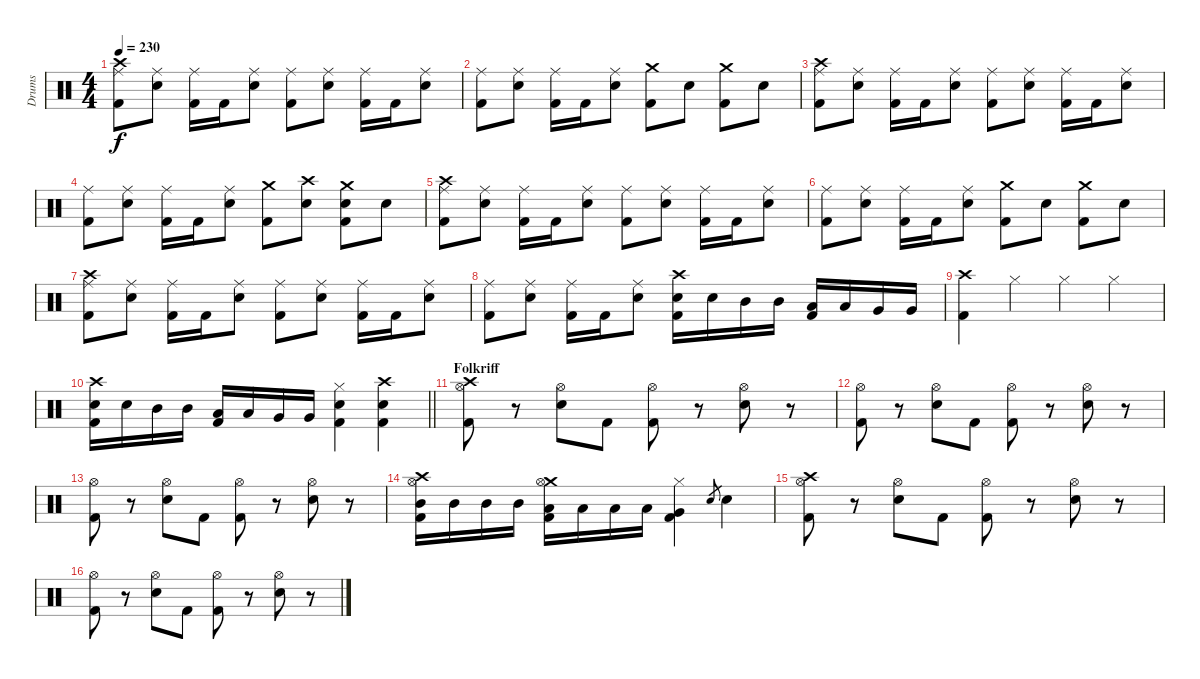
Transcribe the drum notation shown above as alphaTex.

\track ("Drums" "Drums") {instrument percussion}
\staff {score}
\articulation defaults
\ts (4 4)
\tempo 230
\clef neutral
\ks c
("Crash high (hit)" "Ride (middle)" "Kick (hit) 2").8{dy f} ("Ride (middle)" "Snare (hit) 2").8 ("Ride (middle)" "Kick (hit) 2").16 "Kick (hit) 2".16 ("Ride (middle)" "Snare (hit) 2").8 ("Ride (middle)" "Kick (hit) 2").8 ("Ride (middle)" "Snare (hit) 2").8 ("Ride (middle)" "Kick (hit) 2").16 "Kick (hit) 2".16 ("Ride (middle)" "Snare (hit) 2").8 |
("Ride (middle)" "Kick (hit) 2").8 ("Ride (middle)" "Snare (hit) 2").8 ("Ride (middle)" "Kick (hit) 2").16 "Kick (hit) 2".16 ("Ride (middle)" "Snare (hit) 2").8 ("Crash medium (hit)" "Kick (hit) 2").8 "Snare (hit) 2".8 ("Crash medium (hit)" "Kick (hit) 2").8 "Snare (hit) 2".8 |
("Crash high (hit)" "Ride (middle)" "Kick (hit) 2").8 ("Ride (middle)" "Snare (hit) 2").8 ("Ride (middle)" "Kick (hit) 2").16 "Kick (hit) 2".16 ("Ride (middle)" "Snare (hit) 2").8 ("Ride (middle)" "Kick (hit) 2").8 ("Ride (middle)" "Snare (hit) 2").8 ("Ride (middle)" "Kick (hit) 2").16 "Kick (hit) 2".16 ("Ride (middle)" "Snare (hit) 2").8 |
("Ride (middle)" "Kick (hit) 2").8 ("Ride (middle)" "Snare (hit) 2").8 ("Ride (middle)" "Kick (hit) 2").16 "Kick (hit) 2".16 ("Ride (middle)" "Snare (hit) 2").8 ("Crash medium (hit)" "Kick (hit) 2").8 ("Crash high (hit)" "Snare (hit) 2").8 ("Crash medium (hit)" "Snare (hit) 2" "Kick (hit) 2").8 "Snare (hit) 2".8 |
("Crash high (hit)" "Ride (middle)" "Kick (hit) 2").8 ("Ride (middle)" "Snare (hit) 2").8 ("Ride (middle)" "Kick (hit) 2").16 "Kick (hit) 2".16 ("Ride (middle)" "Snare (hit) 2").8 ("Ride (middle)" "Kick (hit) 2").8 ("Ride (middle)" "Snare (hit) 2").8 ("Ride (middle)" "Kick (hit) 2").16 "Kick (hit) 2".16 ("Ride (middle)" "Snare (hit) 2").8 |
("Ride (middle)" "Kick (hit) 2").8 ("Ride (middle)" "Snare (hit) 2").8 ("Ride (middle)" "Kick (hit) 2").16 "Kick (hit) 2".16 ("Ride (middle)" "Snare (hit) 2").8 ("Crash medium (hit)" "Kick (hit) 2").8 "Snare (hit) 2".8 ("Crash medium (hit)" "Kick (hit) 2").8 "Snare (hit) 2".8 |
("Crash high (hit)" "Ride (middle)" "Kick (hit) 2").8 ("Ride (middle)" "Snare (hit) 2").8 ("Ride (middle)" "Kick (hit) 2").16 "Kick (hit) 2".16 ("Ride (middle)" "Snare (hit) 2").8 ("Ride (middle)" "Kick (hit) 2").8 ("Ride (middle)" "Snare (hit) 2").8 ("Ride (middle)" "Kick (hit) 2").16 "Kick (hit) 2".16 ("Ride (middle)" "Snare (hit) 2").8 |
("Ride (middle)" "Kick (hit) 2").8 ("Ride (middle)" "Snare (hit) 2").8 ("Ride (middle)" "Kick (hit) 2").16 "Kick (hit) 2".16 ("Ride (middle)" "Snare (hit) 2").8 ("Crash high (hit)" "Snare (hit) 2" "Kick (hit) 2").16 "Snare (hit) 2".16 "Mid Tom (hit)".16 "Mid Tom (hit)".16 ("Low Tom (hit)" "Kick (hit) 2").16 "Low Tom (hit)".16 "Very Low Tom (hit)".16 "Very Low Tom (hit)".16 |
("Crash high (hit)" "Kick (hit) 2").4 "Hi-Hat (closed)".4 "Hi-Hat (closed)".4 "Hi-Hat (closed)".4 |
\barLineRight lightlight
("Crash high (hit)" "Snare (hit) 2" "Kick (hit) 2").16 "Snare (hit) 2".16 "Mid Tom (hit)".16 "Mid Tom (hit)".16 ("Low Tom (hit)" "Kick (hit) 2").16 "Low Tom (hit)".16 "Very Low Tom (hit)".16 "Very Low Tom (hit)".16 ("Hi-Hat (closed)" "Snare (hit) 2" "Kick (hit) 2").4 ("Crash high (hit)" "Snare (hit) 2" "Kick (hit) 2").4 |
\section ("" "Folkriff")
("Crash high (hit)" "Hi-Hat (open)" "Kick (hit) 2").8 r.8 ("Hi-Hat (open)" "Snare (hit) 2").8 "Kick (hit) 2".8 ("Hi-Hat (open)" "Kick (hit) 2").8 r.8 ("Hi-Hat (open)" "Snare (hit) 2").8 r.8 |
("Hi-Hat (open)" "Kick (hit) 2").8 r.8 ("Hi-Hat (open)" "Snare (hit) 2").8 "Kick (hit) 2".8 ("Hi-Hat (open)" "Kick (hit) 2").8 r.8 ("Hi-Hat (open)" "Snare (hit) 2").8 r.8 |
("Hi-Hat (open)" "Kick (hit) 2").8 r.8 ("Hi-Hat (open)" "Snare (hit) 2").8 "Kick (hit) 2".8 ("Hi-Hat (open)" "Kick (hit) 2").8 r.8 ("Hi-Hat (open)" "Snare (hit) 2").8 r.8 |
("Crash high (hit)" "Hi-Hat (open)" "Mid Tom (hit)" "Kick (hit) 2").16 "Mid Tom (hit)".16 "Mid Tom (hit)".16 "Mid Tom (hit)".16 ("Crash medium (hit)" "Hi-Hat (open)" "Low Tom (hit)" "Kick (hit) 2").16 "Low Tom (hit)".16 "Low Tom (hit)".16 "Low Tom (hit)".16 ("Hi-Hat (closed)" "Very Low Tom (hit)" "Kick (hit) 2").4 "Snare (hit) 2".8{gr} "Snare (hit) 2".4 |
("Crash high (hit)" "Hi-Hat (open)" "Kick (hit) 2").8 r.8 ("Hi-Hat (open)" "Snare (hit) 2").8 "Kick (hit) 2".8 ("Hi-Hat (open)" "Kick (hit) 2").8 r.8 ("Hi-Hat (open)" "Snare (hit) 2").8 r.8 |
("Hi-Hat (open)" "Kick (hit) 2").8 r.8 ("Hi-Hat (open)" "Snare (hit) 2").8 "Kick (hit) 2".8 ("Hi-Hat (open)" "Kick (hit) 2").8 r.8 ("Hi-Hat (open)" "Snare (hit) 2").8 r.8
